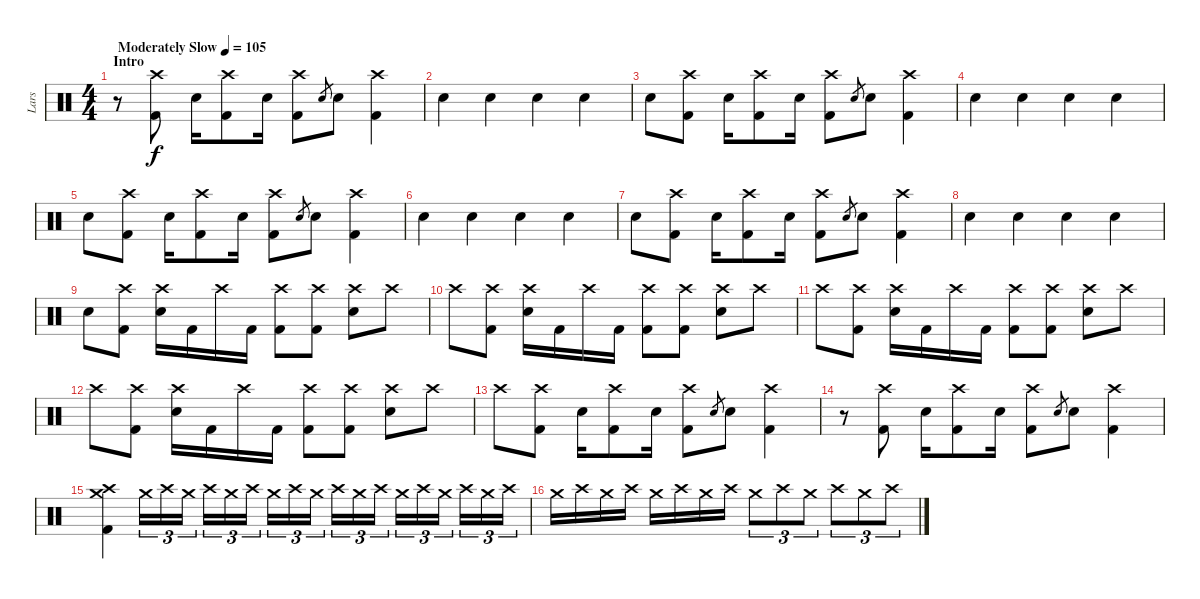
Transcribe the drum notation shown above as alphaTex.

\track ("Lars" "Lars") {instrument percussion}
\staff {score}
\articulation defaults
\ts (4 4)
\section ("" "Intro")
\tempo (105 "Moderately Slow")
\clef neutral
\ks c
r.8{dy f} ("Crash high (hit)" "Kick (hit) 2").8 "Electric Snare (hit)".16 ("Crash high (hit)" "Kick (hit) 2").8 "Electric Snare (hit)".16 ("Crash high (hit)" "Kick (hit) 2").8 "Electric Snare (hit)".8{gr} "Electric Snare (hit)".8 ("Crash high (hit)" "Kick (hit) 2").4 |
"Electric Snare (hit)".4 "Electric Snare (hit)".4 "Electric Snare (hit)".4 "Electric Snare (hit)".4 |
"Electric Snare (hit)".8 ("Crash high (hit)" "Kick (hit) 2").8 "Electric Snare (hit)".16 ("Crash high (hit)" "Kick (hit) 2").8 "Electric Snare (hit)".16 ("Crash high (hit)" "Kick (hit) 2").8 "Electric Snare (hit)".8{gr} "Electric Snare (hit)".8 ("Crash high (hit)" "Kick (hit) 2").4 |
"Electric Snare (hit)".4 "Electric Snare (hit)".4 "Electric Snare (hit)".4 "Electric Snare (hit)".4 |
"Electric Snare (hit)".8 ("Crash high (hit)" "Kick (hit) 2").8 "Electric Snare (hit)".16 ("Crash high (hit)" "Kick (hit) 2").8 "Electric Snare (hit)".16 ("Crash high (hit)" "Kick (hit) 2").8 "Electric Snare (hit)".8{gr} "Electric Snare (hit)".8 ("Crash high (hit)" "Kick (hit) 2").4 |
"Electric Snare (hit)".4 "Electric Snare (hit)".4 "Electric Snare (hit)".4 "Electric Snare (hit)".4 |
"Electric Snare (hit)".8 ("Crash high (hit)" "Kick (hit) 2").8 "Electric Snare (hit)".16 ("Crash high (hit)" "Kick (hit) 2").8 "Electric Snare (hit)".16 ("Crash high (hit)" "Kick (hit) 2").8 "Electric Snare (hit)".8{gr} "Electric Snare (hit)".8 ("Crash high (hit)" "Kick (hit) 2").4 |
"Electric Snare (hit)".4 "Electric Snare (hit)".4 "Electric Snare (hit)".4 "Electric Snare (hit)".4 |
"Electric Snare (hit)".8 ("Crash high (hit)" "Kick (hit) 2").8 ("Crash high (hit)" "Electric Snare (hit)").16 "Kick (hit) 2".16 "Crash high (hit)".16 "Kick (hit) 2".16 ("Crash high (hit)" "Kick (hit) 2").8 ("Crash high (hit)" "Kick (hit) 2").8 ("Crash high (hit)" "Electric Snare (hit)").8 "Crash high (hit)".8 |
"Crash high (hit)".8 ("Crash high (hit)" "Kick (hit) 2").8 ("Crash high (hit)" "Electric Snare (hit)").16 "Kick (hit) 2".16 "Crash high (hit)".16 "Kick (hit) 2".16 ("Crash high (hit)" "Kick (hit) 2").8 ("Crash high (hit)" "Kick (hit) 2").8 ("Crash high (hit)" "Electric Snare (hit)").8 "Crash high (hit)".8 |
"Crash high (hit)".8 ("Crash high (hit)" "Kick (hit) 2").8 ("Crash high (hit)" "Electric Snare (hit)").16 "Kick (hit) 2".16 "Crash high (hit)".16 "Kick (hit) 2".16 ("Crash high (hit)" "Kick (hit) 2").8 ("Crash high (hit)" "Kick (hit) 2").8 ("Crash high (hit)" "Electric Snare (hit)").8 "Crash high (hit)".8 |
"Crash high (hit)".8 ("Crash high (hit)" "Kick (hit) 2").8 ("Crash high (hit)" "Electric Snare (hit)").16 "Kick (hit) 2".16 "Crash high (hit)".16 "Kick (hit) 2".16 ("Crash high (hit)" "Kick (hit) 2").8 ("Crash high (hit)" "Kick (hit) 2").8 ("Crash high (hit)" "Electric Snare (hit)").8 "Crash high (hit)".8 |
"Crash high (hit)".8 ("Crash high (hit)" "Kick (hit) 2").8 "Electric Snare (hit)".16 ("Crash high (hit)" "Kick (hit) 2").8 "Electric Snare (hit)".16 ("Crash high (hit)" "Kick (hit) 2").8 "Electric Snare (hit)".8{gr} "Electric Snare (hit)".8 ("Crash high (hit)" "Kick (hit) 2").4 |
r.8 ("Crash high (hit)" "Kick (hit) 2").8 "Electric Snare (hit)".16 ("Crash high (hit)" "Kick (hit) 2").8 "Electric Snare (hit)".16 ("Crash high (hit)" "Kick (hit) 2").8 "Electric Snare (hit)".8{gr} "Electric Snare (hit)".8 ("Crash high (hit)" "Kick (hit) 2").4 |
("Crash medium (hit)" "Crash high (hit)" "Kick (hit) 2").4 "Crash medium (hit)".16{tu (3 2)} "Crash high (hit)".16{tu (3 2)} "Crash medium (hit)".16{tu (3 2) beam splitsecondary} "Crash high (hit)".16{tu (3 2)} "Crash medium (hit)".16{tu (3 2)} "Crash high (hit)".16{tu (3 2)} "Crash medium (hit)".16{tu (3 2)} "Crash high (hit)".16{tu (3 2)} "Crash medium (hit)".16{tu (3 2) beam splitsecondary} "Crash high (hit)".16{tu (3 2)} "Crash medium (hit)".16{tu (3 2)} "Crash high (hit)".16{tu (3 2)} "Crash medium (hit)".16{tu (3 2)} "Crash high (hit)".16{tu (3 2)} "Crash medium (hit)".16{tu (3 2) beam splitsecondary} "Crash high (hit)".16{tu (3 2)} "Crash medium (hit)".16{tu (3 2)} "Crash high (hit)".16{tu (3 2)} |
"Crash medium (hit)".16 "Crash high (hit)".16 "Crash medium (hit)".16 "Crash high (hit)".16 "Crash medium (hit)".16 "Crash high (hit)".16 "Crash medium (hit)".16 "Crash high (hit)".16 "Crash medium (hit)".8{tu (3 2)} "Crash high (hit)".8{tu (3 2)} "Crash medium (hit)".8{tu (3 2)} "Crash high (hit)".8{tu (3 2)} "Crash medium (hit)".8{tu (3 2)} "Crash high (hit)".8{tu (3 2)}
